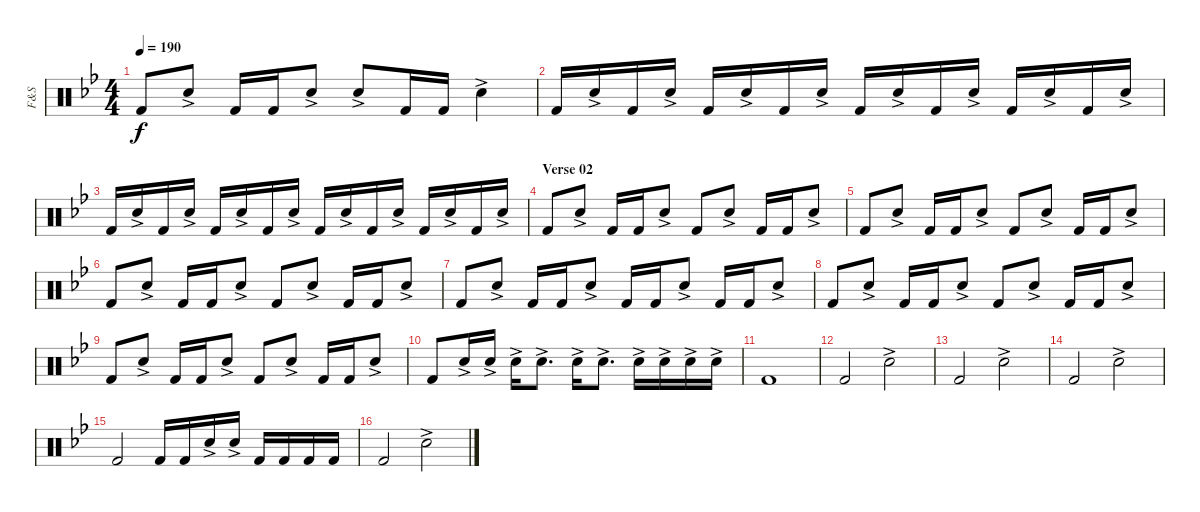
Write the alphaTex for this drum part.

\track ("F&S" "F&S") {instrument percussion}
\staff {score}
\articulation defaults
\ts (4 4)
\tempo 190
\clef neutral
\ks bb "Kick (hit) 2".8{dy f} "Snare (hit) 2"{ac}.8 "Kick (hit) 2".16 "Kick (hit) 2".16 "Snare (hit) 2"{ac}.8 "Snare (hit) 2"{ac}.8 "Kick (hit) 2".16 "Kick (hit) 2".16 "Snare (hit) 2"{ac}.4
|
"Kick (hit) 2".16 "Snare (hit) 2"{ac}.16 "Kick (hit) 2".16 "Snare (hit) 2"{ac}.16 "Kick (hit) 2".16 "Snare (hit) 2"{ac}.16 "Kick (hit) 2".16 "Snare (hit) 2"{ac}.16 "Kick (hit) 2".16 "Snare (hit) 2"{ac}.16 "Kick (hit) 2".16 "Snare (hit) 2"{ac}.16 "Kick (hit) 2".16 "Snare (hit) 2"{ac}.16 "Kick (hit) 2".16 "Snare (hit) 2"{ac}.16 |
"Kick (hit) 2".16 "Snare (hit) 2"{ac}.16 "Kick (hit) 2".16 "Snare (hit) 2"{ac}.16 "Kick (hit) 2".16 "Snare (hit) 2"{ac}.16 "Kick (hit) 2".16 "Snare (hit) 2"{ac}.16 "Kick (hit) 2".16 "Snare (hit) 2"{ac}.16 "Kick (hit) 2".16 "Snare (hit) 2"{ac}.16 "Kick (hit) 2".16 "Snare (hit) 2"{ac}.16 "Kick (hit) 2".16 "Snare (hit) 2"{ac}.16 |
\section ("" "Verse 02")
"Kick (hit) 2".8 "Snare (hit) 2"{ac}.8 "Kick (hit) 2".16 "Kick (hit) 2".16 "Snare (hit) 2"{ac}.8 "Kick (hit) 2".8 "Snare (hit) 2"{ac}.8 "Kick (hit) 2".16 "Kick (hit) 2".16 "Snare (hit) 2"{ac}.8 |
"Kick (hit) 2".8 "Snare (hit) 2"{ac}.8 "Kick (hit) 2".16 "Kick (hit) 2".16 "Snare (hit) 2"{ac}.8 "Kick (hit) 2".8 "Snare (hit) 2"{ac}.8 "Kick (hit) 2".16 "Kick (hit) 2".16 "Snare (hit) 2"{ac}.8 |
"Kick (hit) 2".8 "Snare (hit) 2"{ac}.8 "Kick (hit) 2".16 "Kick (hit) 2".16 "Snare (hit) 2"{ac}.8 "Kick (hit) 2".8 "Snare (hit) 2"{ac}.8 "Kick (hit) 2".16 "Kick (hit) 2".16 "Snare (hit) 2"{ac}.8 |
"Kick (hit) 2".8 "Snare (hit) 2"{ac}.8 "Kick (hit) 2".16 "Kick (hit) 2".16 "Snare (hit) 2"{ac}.8 "Kick (hit) 2".16 "Kick (hit) 2".16 "Snare (hit) 2"{ac}.8 "Kick (hit) 2".16 "Kick (hit) 2".16 "Snare (hit) 2"{ac}.8 |
"Kick (hit) 2".8 "Snare (hit) 2"{ac}.8 "Kick (hit) 2".16 "Kick (hit) 2".16 "Snare (hit) 2"{ac}.8 "Kick (hit) 2".8 "Snare (hit) 2"{ac}.8 "Kick (hit) 2".16 "Kick (hit) 2".16 "Snare (hit) 2"{ac}.8 |
"Kick (hit) 2".8 "Snare (hit) 2"{ac}.8 "Kick (hit) 2".16 "Kick (hit) 2".16 "Snare (hit) 2"{ac}.8 "Kick (hit) 2".8 "Snare (hit) 2"{ac}.8 "Kick (hit) 2".16 "Kick (hit) 2".16 "Snare (hit) 2"{ac}.8 |
"Kick (hit) 2".8 "Snare (hit) 2"{ac}.16 "Snare (hit) 2"{ac}.16 "Snare (hit) 2"{ac}.16 "Snare (hit) 2"{ac}.8{d} "Snare (hit) 2"{ac}.16 "Snare (hit) 2"{ac}.8{d} "Snare (hit) 2"{ac}.16 "Snare (hit) 2"{ac}.16 "Snare (hit) 2"{ac}.16 "Snare (hit) 2"{ac}.16 |
"Kick (hit) 2".1 |
"Kick (hit) 2".2 "Snare (hit) 2"{ac}.2 |
"Kick (hit) 2".2 "Snare (hit) 2"{ac}.2 |
"Kick (hit) 2".2 "Snare (hit) 2"{ac}.2 |
"Kick (hit) 2".2 "Kick (hit) 2".16 "Kick (hit) 2".16 "Snare (hit) 2"{ac}.16 "Snare (hit) 2"{ac}.16 "Kick (hit) 2".16 "Kick (hit) 2".16 "Kick (hit) 2".16 "Kick (hit) 2".16 |
"Kick (hit) 2".2 "Snare (hit) 2"{ac}.2
